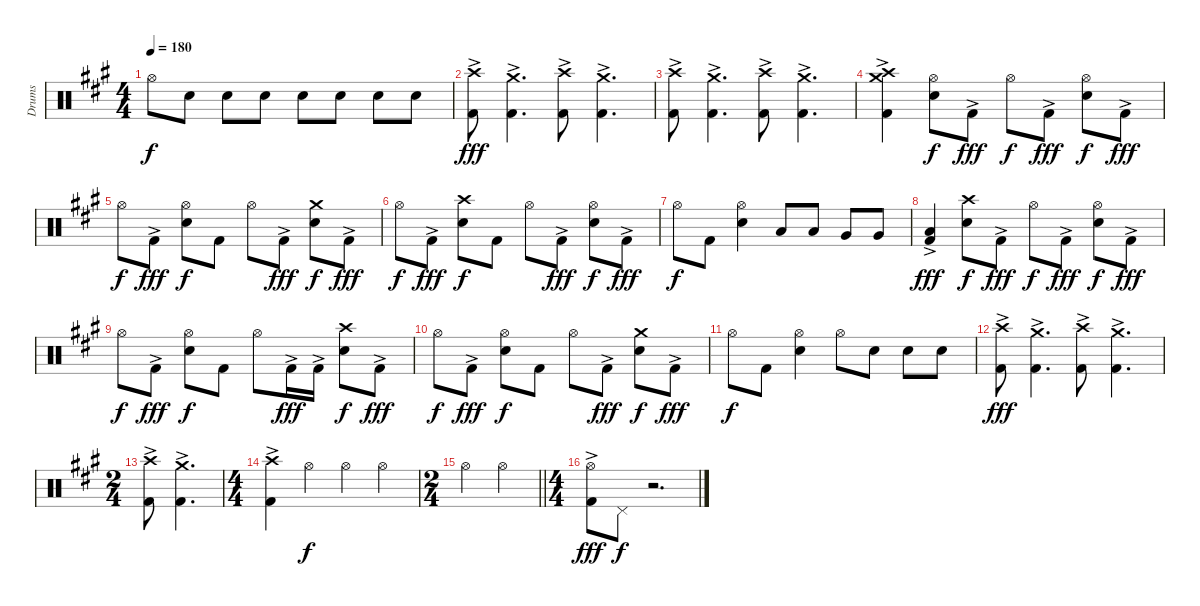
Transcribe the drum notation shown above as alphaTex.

\track ("Drums" "Drums") {instrument percussion}
\staff {score}
\articulation defaults
\ts (4 4)
\tempo 180
\clef neutral
\ks f#minor "Hi-Hat (open)".8{dy f} "Snare (hit) 2".8 "Snare (hit) 2".8 "Snare (hit) 2".8 "Snare (hit) 2".8 "Snare (hit) 2".8 "Snare (hit) 2".8 "Snare (hit) 2".8
|
("Crash high (hit)" "Kick (hit) 2"{ac}).8{dy fff} ("Crash medium (hit)" "Kick (hit) 2"{ac}).4{d} ("Crash high (hit)" "Kick (hit) 2"{ac}).8 ("Crash medium (hit)" "Kick (hit) 2"{ac}).4{d} |
("Crash high (hit)" "Kick (hit) 2"{ac}).8 ("Crash medium (hit)" "Kick (hit) 2"{ac}).4{d} ("Crash high (hit)" "Kick (hit) 2"{ac}).8 ("Crash medium (hit)" "Kick (hit) 2"{ac}).4{d} |
("Crash high (hit)" "Crash medium (hit)" "Kick (hit) 2"{ac}).4 ("Hi-Hat (open)" "Snare (hit) 2").8{dy f} "Kick (hit) 2"{ac}.8{dy fff} "Hi-Hat (open)".8{dy f} "Kick (hit) 2"{ac}.8{dy fff} ("Hi-Hat (open)" "Snare (hit) 2").8{dy f} "Kick (hit) 2"{ac}.8{dy fff} |
"Hi-Hat (open)".8{dy f} "Kick (hit) 2"{ac}.8{dy fff} ("Hi-Hat (open)" "Snare (hit) 2").8{dy f} "Kick (hit) 2".8 "Hi-Hat (open)".8 "Kick (hit) 2"{ac}.8{dy fff} ("Crash medium (hit)" "Snare (hit) 2").8{dy f} "Kick (hit) 2"{ac}.8{dy fff} |
"Hi-Hat (open)".8{dy f} "Kick (hit) 2"{ac}.8{dy fff} ("Crash high (hit)" "Snare (hit) 2").8{dy f} "Kick (hit) 2".8 "Hi-Hat (open)".8 "Kick (hit) 2"{ac}.8{dy fff} ("Hi-Hat (open)" "Snare (hit) 2").8{dy f} "Kick (hit) 2"{ac}.8{dy fff} |
"Hi-Hat (open)".8{dy f} "Kick (hit) 2".8 ("Hi-Hat (open)" "Snare (hit) 2").4 "Low Tom (hit)".8 "Low Tom (hit)".8 "Very Low Tom (hit)".8 "Very Low Tom (hit)".8 |
("Low Floor Tom (hit)" "Kick (hit) 2"{ac}).4{dy fff} ("Crash high (hit)" "Snare (hit) 2").8{dy f} "Kick (hit) 2"{ac}.8{dy fff} "Hi-Hat (open)".8{dy f} "Kick (hit) 2"{ac}.8{dy fff} ("Hi-Hat (open)" "Snare (hit) 2").8{dy f} "Kick (hit) 2"{ac}.8{dy fff} |
"Hi-Hat (open)".8{dy f} "Kick (hit) 2"{ac}.8{dy fff} ("Hi-Hat (open)" "Snare (hit) 2").8{dy f} "Kick (hit) 2".8 "Hi-Hat (open)".8 "Kick (hit) 2"{ac}.16{dy fff} "Kick (hit) 2"{ac}.16 ("Crash high (hit)" "Snare (hit) 2").8{dy f} "Kick (hit) 2"{ac}.8{dy fff} |
"Hi-Hat (open)".8{dy f} "Kick (hit) 2"{ac}.8{dy fff} ("Hi-Hat (open)" "Snare (hit) 2").8{dy f} "Kick (hit) 2".8 "Hi-Hat (open)".8 "Kick (hit) 2"{ac}.8{dy fff} ("Crash medium (hit)" "Snare (hit) 2").8{dy f} "Kick (hit) 2"{ac}.8{dy fff} |
"Hi-Hat (open)".8{dy f} "Kick (hit) 2".8 ("Hi-Hat (open)" "Snare (hit) 2").4 "Hi-Hat (open)".8 "Snare (hit) 2".8 "Snare (hit) 2".8 "Snare (hit) 2".8 |
("Crash high (hit)" "Kick (hit) 2"{ac}).8{dy fff} ("Crash medium (hit)" "Kick (hit) 2"{ac}).4{d} ("Crash high (hit)" "Kick (hit) 2"{ac}).8 ("Crash medium (hit)" "Kick (hit) 2"{ac}).4{d} |
\ts (2 4)
("Crash high (hit)" "Kick (hit) 2"{ac}).8 ("Crash medium (hit)" "Kick (hit) 2"{ac}).4{d} |
\ts (4 4)
("Crash high (hit)" "Kick (hit) 2"{ac}).4 "Hi-Hat (open)".4{dy f} "Hi-Hat (open)".4 "Hi-Hat (open)".4 |
\ts (2 4)
\barLineRight lightlight "Hi-Hat (open)".4 "Hi-Hat (open)".4
|
\ts (4 4)
("Hi-Hat (open)" "Kick (hit) 2"{ac}).8{dy fff} "Pedal Hi-Hat (hit)".8{dy f} r.2{d}
